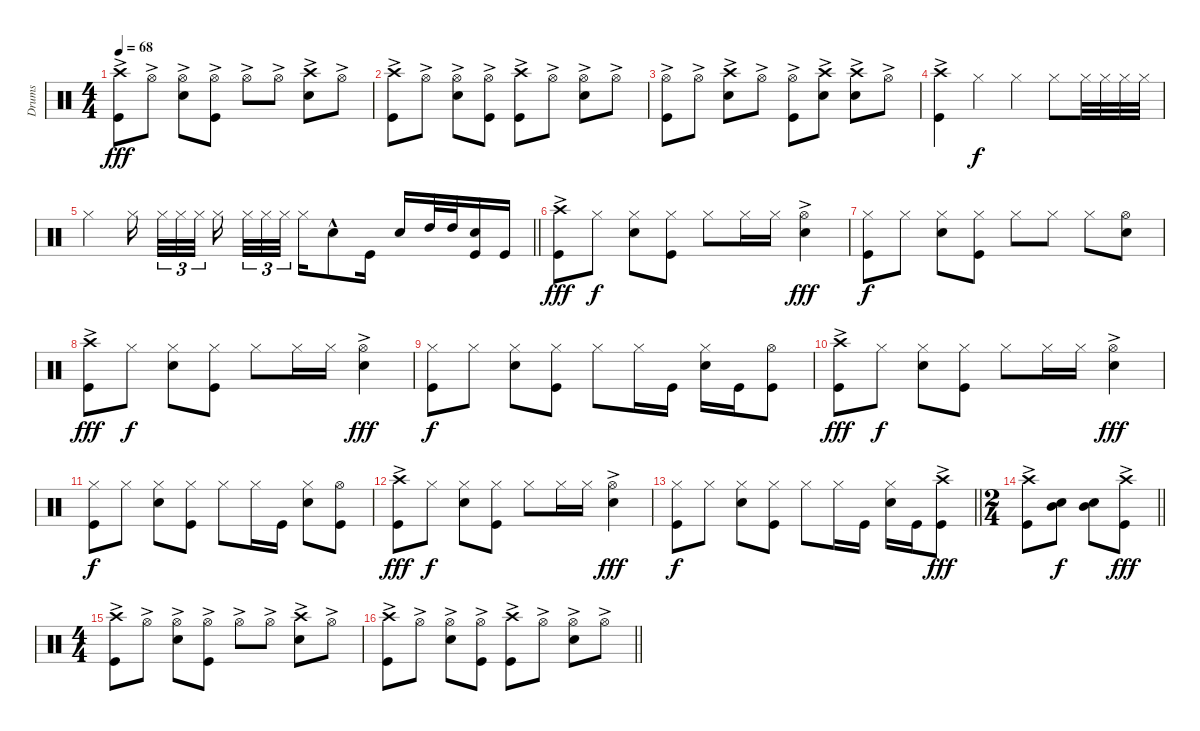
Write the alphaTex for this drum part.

\track ("Drums" "Drums") {instrument percussion}
\staff {score}
\articulation defaults
\ts (4 4)
\tempo 68
\clef neutral
\ks c
("Crash high (hit)"{ac} "Kick (hit)").8{dy fff} "Hi-Hat (open)"{ac}.8 ("Hi-Hat (open)"{ac} "Snare (hit) 2").8 ("Hi-Hat (open)"{ac} "Kick (hit)").8 "Hi-Hat (open)"{ac}.8 "Hi-Hat (open)"{ac}.8 ("Crash high (hit)"{ac} "Snare (hit) 2").8 "Hi-Hat (open)"{ac}.8 |
("Crash high (hit)"{ac} "Kick (hit)").8 "Hi-Hat (open)"{ac}.8 ("Hi-Hat (open)"{ac} "Snare (hit) 2").8 ("Hi-Hat (open)"{ac} "Kick (hit)").8 ("Crash high (hit)"{ac} "Kick (hit)").8 "Hi-Hat (open)"{ac}.8 ("Hi-Hat (open)"{ac} "Snare (hit) 2").8 "Hi-Hat (open)"{ac}.8 |
("Hi-Hat (open)"{ac} "Kick (hit)").8 "Hi-Hat (open)"{ac}.8 ("Crash high (hit)"{ac} "Snare (hit) 2").8 "Hi-Hat (open)"{ac}.8 ("Hi-Hat (open)"{ac} "Kick (hit)").8 ("Crash high (hit)"{ac} "Snare (hit) 2").8 ("Crash high (hit)"{ac} "Snare (hit) 2").8 "Hi-Hat (open)"{ac}.8 |
("Crash high (hit)"{ac} "Kick (hit)").4 "Hi-Hat (closed)".4{dy f} "Hi-Hat (closed)".4 "Hi-Hat (closed)".8 "Hi-Hat (closed)".32 "Hi-Hat (closed)".32 "Hi-Hat (closed)".32 "Hi-Hat (closed)".32 |
\barLineRight lightlight "Hi-Hat (closed)".4 "Hi-Hat (closed)".16 "Hi-Hat (closed)".32{tu (3 2)} "Hi-Hat (closed)".32{tu (3 2)} "Hi-Hat (closed)".32{tu (3 2)} "Hi-Hat (closed)".16 "Hi-Hat (closed)".32{tu (3 2)} "Hi-Hat (closed)".32{tu (3 2)} "Hi-Hat (closed)".32{tu (3 2)} "Hi-Hat (closed)".16 "Snare (hit) 2"{hac}.8 "Kick (hit)".16 "Snare (hit) 2".16 "High Tom (hit)".32 "High Tom (hit)".32
("Snare (hit) 2" "Kick (hit)").16 "Kick (hit)".16 |
("Crash high (hit)"{ac} "Kick (hit)").8{dy fff} "Hi-Hat (closed)".8{dy f} ("Hi-Hat (closed)" "Snare (hit) 2").8 ("Hi-Hat (closed)" "Kick (hit)").8 "Hi-Hat (closed)".8 "Hi-Hat (closed)".16 "Hi-Hat (closed)".16 ("Hi-Hat (open)"{ac} "Snare (hit) 2").4{dy fff} |
("Hi-Hat (closed)" "Kick (hit)").8{dy f} "Hi-Hat (closed)".8 ("Hi-Hat (closed)" "Snare (hit) 2").8 ("Hi-Hat (closed)" "Kick (hit)").8 "Hi-Hat (closed)".8 "Hi-Hat (closed)".8 "Hi-Hat (closed)".8 ("Hi-Hat (open)" "Snare (hit) 2").8 |
("Crash high (hit)"{ac} "Kick (hit)").8{dy fff} "Hi-Hat (closed)".8{dy f} ("Hi-Hat (closed)" "Snare (hit) 2").8 ("Hi-Hat (closed)" "Kick (hit)").8 "Hi-Hat (closed)".8 "Hi-Hat (closed)".16 "Hi-Hat (closed)".16 ("Hi-Hat (open)"{ac} "Snare (hit) 2").4{dy fff} |
("Hi-Hat (closed)" "Kick (hit)").8{dy f} "Hi-Hat (closed)".8 ("Hi-Hat (closed)" "Snare (hit) 2").8 ("Hi-Hat (closed)" "Kick (hit)").8 "Hi-Hat (closed)".8 "Hi-Hat (closed)".16 "Kick (hit)".16 ("Hi-Hat (closed)" "Snare (hit) 2").16 "Kick (hit)".16 ("Hi-Hat (open)" "Kick (hit)").8 |
("Crash high (hit)"{ac} "Kick (hit)").8{dy fff} "Hi-Hat (closed)".8{dy f} ("Hi-Hat (closed)" "Snare (hit) 2").8 ("Hi-Hat (closed)" "Kick (hit)").8 "Hi-Hat (closed)".8 "Hi-Hat (closed)".16 "Hi-Hat (closed)".16 ("Hi-Hat (open)"{ac} "Snare (hit) 2").4{dy fff} |
("Hi-Hat (closed)" "Kick (hit)").8{dy f} "Hi-Hat (closed)".8 ("Hi-Hat (closed)" "Snare (hit) 2").8 ("Hi-Hat (closed)" "Kick (hit)").8 "Hi-Hat (closed)".8 "Hi-Hat (closed)".16 "Kick (hit)".16 ("Hi-Hat (closed)" "Snare (hit) 2").8 ("Hi-Hat (open)" "Kick (hit)").8 |
("Crash high (hit)"{ac} "Kick (hit)").8{dy fff} "Hi-Hat (closed)".8{dy f} ("Hi-Hat (closed)" "Snare (hit) 2").8 ("Hi-Hat (closed)" "Kick (hit)").8 "Hi-Hat (closed)".8 "Hi-Hat (closed)".16 "Hi-Hat (closed)".16 ("Hi-Hat (open)"{ac} "Snare (hit) 2").4{dy fff} |
\barLineRight lightlight
("Hi-Hat (closed)" "Kick (hit)").8{dy f} "Hi-Hat (closed)".8 ("Hi-Hat (closed)" "Snare (hit) 2").8 ("Hi-Hat (closed)" "Kick (hit)").8 "Hi-Hat (closed)".8 "Hi-Hat (closed)".16 "Kick (hit)".16 ("Hi-Hat (closed)" "Snare (hit) 2").16 "Kick (hit)".16 ("Crash high (hit)"{ac} "Kick (hit)").8{dy fff} |
\ts (2 4)
\barLineRight lightlight
("Crash high (hit)"{ac} "Kick (hit)").8 ("Mid Tom (hit)" "Snare (hit) 2").8{dy f} ("Mid Tom (hit)" "Snare (hit) 2").8 ("Crash high (hit)"{ac} "Kick (hit)").8{dy fff} |
\ts (4 4)
("Crash high (hit)"{ac} "Kick (hit)").8 "Hi-Hat (open)"{ac}.8 ("Hi-Hat (open)"{ac} "Snare (hit) 2").8 ("Hi-Hat (open)"{ac} "Kick (hit)").8 "Hi-Hat (open)"{ac}.8 "Hi-Hat (open)"{ac}.8 ("Crash high (hit)"{ac} "Snare (hit) 2").8 "Hi-Hat (open)"{ac}.8 |
\barLineRight lightlight
("Crash high (hit)"{ac} "Kick (hit)").8 "Hi-Hat (open)"{ac}.8 ("Hi-Hat (open)"{ac} "Snare (hit) 2").8 ("Hi-Hat (open)"{ac} "Kick (hit)").8 ("Crash high (hit)"{ac} "Kick (hit)").8 "Hi-Hat (open)"{ac}.8 ("Hi-Hat (open)"{ac} "Snare (hit) 2").8 "Hi-Hat (open)"{ac}.8
